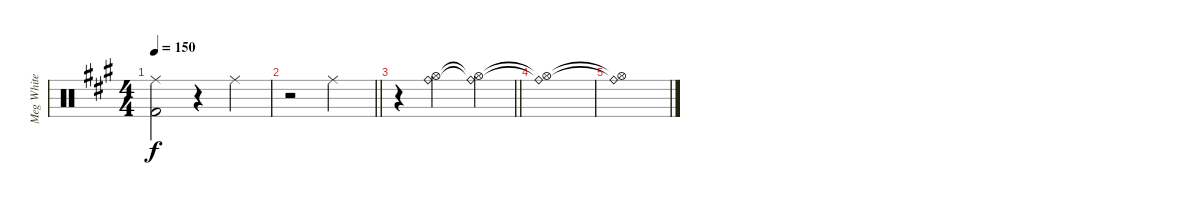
\track ("Meg White Drums" "Meg White ") {instrument percussion}
\staff {score}
\articulation defaults
\ts (4 4)
\tempo 150
\clef neutral
\ks a
("Ride (middle)" "Kick (hit) 2").2{dy f} r.4 "Ride (middle)".4 |
\barLineRight lightlight
r.2 "Ride (middle)".2 |
\barLineRight lightlight
r.4 ("Hi-Hat (open)" "Ride (bell)").2 ("Hi-Hat (open)"{t} "Ride (bell)"{t}).4 |
("Hi-Hat (open)"{t} "Ride (bell)"{t}).1 |
("Hi-Hat (open)"{t} "Ride (bell)"{t}).1
